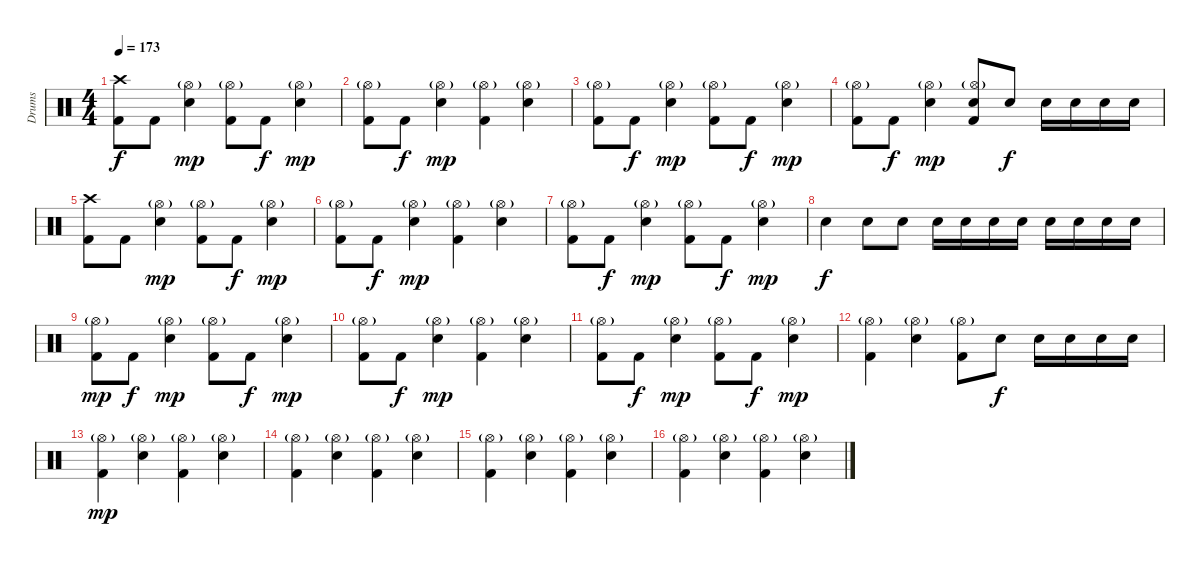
\track ("Drums" "Drums") {instrument percussion}
\staff {score}
\articulation defaults
\ts (4 4)
\tempo 173
\clef neutral
\ks c
("Crash high (hit)" "Kick (hit) 2").8{dy f} "Kick (hit) 2".8 ("Hi-Hat (open)"{g} "Snare (hit) 2").4{dy mp} ("Hi-Hat (open)"{g} "Kick (hit) 2").8 "Kick (hit) 2".8{dy f} ("Hi-Hat (open)"{g} "Snare (hit) 2").4{dy mp} |
("Hi-Hat (open)"{g} "Kick (hit) 2").8 "Kick (hit) 2".8{dy f} ("Hi-Hat (open)"{g} "Snare (hit) 2").4{dy mp} ("Hi-Hat (open)"{g} "Kick (hit) 2").4 ("Hi-Hat (open)"{g} "Snare (hit) 2").4 |
("Hi-Hat (open)"{g} "Kick (hit) 2").8 "Kick (hit) 2".8{dy f} ("Hi-Hat (open)"{g} "Snare (hit) 2").4{dy mp} ("Hi-Hat (open)"{g} "Kick (hit) 2").8 "Kick (hit) 2".8{dy f} ("Hi-Hat (open)"{g} "Snare (hit) 2").4{dy mp} |
("Hi-Hat (open)"{g} "Kick (hit) 2").8 "Kick (hit) 2".8{dy f} ("Hi-Hat (open)"{g} "Snare (hit) 2").4{dy mp} ("Hi-Hat (open)"{g} "Snare (hit) 2" "Kick (hit) 2").8 "Snare (hit) 2".8{dy f} "Snare (hit) 2".16 "Snare (hit) 2".16 "Snare (hit) 2".16 "Snare (hit) 2".16 |
("Crash high (hit)" "Kick (hit) 2").8 "Kick (hit) 2".8 ("Hi-Hat (open)"{g} "Snare (hit) 2").4{dy mp} ("Hi-Hat (open)"{g} "Kick (hit) 2").8 "Kick (hit) 2".8{dy f} ("Hi-Hat (open)"{g} "Snare (hit) 2").4{dy mp} |
("Hi-Hat (open)"{g} "Kick (hit) 2").8 "Kick (hit) 2".8{dy f} ("Hi-Hat (open)"{g} "Snare (hit) 2").4{dy mp} ("Hi-Hat (open)"{g} "Kick (hit) 2").4 ("Hi-Hat (open)"{g} "Snare (hit) 2").4 |
("Hi-Hat (open)"{g} "Kick (hit) 2").8 "Kick (hit) 2".8{dy f} ("Hi-Hat (open)"{g} "Snare (hit) 2").4{dy mp} ("Hi-Hat (open)"{g} "Kick (hit) 2").8 "Kick (hit) 2".8{dy f} ("Hi-Hat (open)"{g} "Snare (hit) 2").4{dy mp} |
"Snare (hit) 2".4{dy f} "Snare (hit) 2".8 "Snare (hit) 2".8 "Snare (hit) 2".16 "Snare (hit) 2".16 "Snare (hit) 2".16 "Snare (hit) 2".16 "Snare (hit) 2".16 "Snare (hit) 2".16 "Snare (hit) 2".16 "Snare (hit) 2".16 |
("Hi-Hat (open)"{g} "Kick (hit) 2").8{dy mp} "Kick (hit) 2".8{dy f} ("Hi-Hat (open)"{g} "Snare (hit) 2").4{dy mp} ("Hi-Hat (open)"{g} "Kick (hit) 2").8 "Kick (hit) 2".8{dy f} ("Hi-Hat (open)"{g} "Snare (hit) 2").4{dy mp} |
("Hi-Hat (open)"{g} "Kick (hit) 2").8 "Kick (hit) 2".8{dy f} ("Hi-Hat (open)"{g} "Snare (hit) 2").4{dy mp} ("Hi-Hat (open)"{g} "Kick (hit) 2").4 ("Hi-Hat (open)"{g} "Snare (hit) 2").4 |
("Hi-Hat (open)"{g} "Kick (hit) 2").8 "Kick (hit) 2".8{dy f} ("Hi-Hat (open)"{g} "Snare (hit) 2").4{dy mp} ("Hi-Hat (open)"{g} "Kick (hit) 2").8 "Kick (hit) 2".8{dy f} ("Hi-Hat (open)"{g} "Snare (hit) 2").4{dy mp} |
("Hi-Hat (open)"{g} "Kick (hit) 2").4 ("Hi-Hat (open)"{g} "Snare (hit) 2").4 ("Hi-Hat (open)"{g} "Kick (hit) 2").8 "Snare (hit) 2".8{dy f} "Snare (hit) 2".16 "Snare (hit) 2".16 "Snare (hit) 2".16 "Snare (hit) 2".16 |
("Hi-Hat (open)"{g} "Kick (hit) 2").4{dy mp} ("Hi-Hat (open)"{g} "Snare (hit) 2").4 ("Hi-Hat (open)"{g} "Kick (hit) 2").4 ("Hi-Hat (open)"{g} "Snare (hit) 2").4 |
("Hi-Hat (open)"{g} "Kick (hit) 2").4 ("Hi-Hat (open)"{g} "Snare (hit) 2").4 ("Hi-Hat (open)"{g} "Kick (hit) 2").4 ("Hi-Hat (open)"{g} "Snare (hit) 2").4 |
("Hi-Hat (open)"{g} "Kick (hit) 2").4 ("Hi-Hat (open)"{g} "Snare (hit) 2").4 ("Hi-Hat (open)"{g} "Kick (hit) 2").4 ("Hi-Hat (open)"{g} "Snare (hit) 2").4 |
("Hi-Hat (open)"{g} "Kick (hit) 2").4 ("Hi-Hat (open)"{g} "Snare (hit) 2").4 ("Hi-Hat (open)"{g} "Kick (hit) 2").4 ("Hi-Hat (open)"{g} "Snare (hit) 2").4
